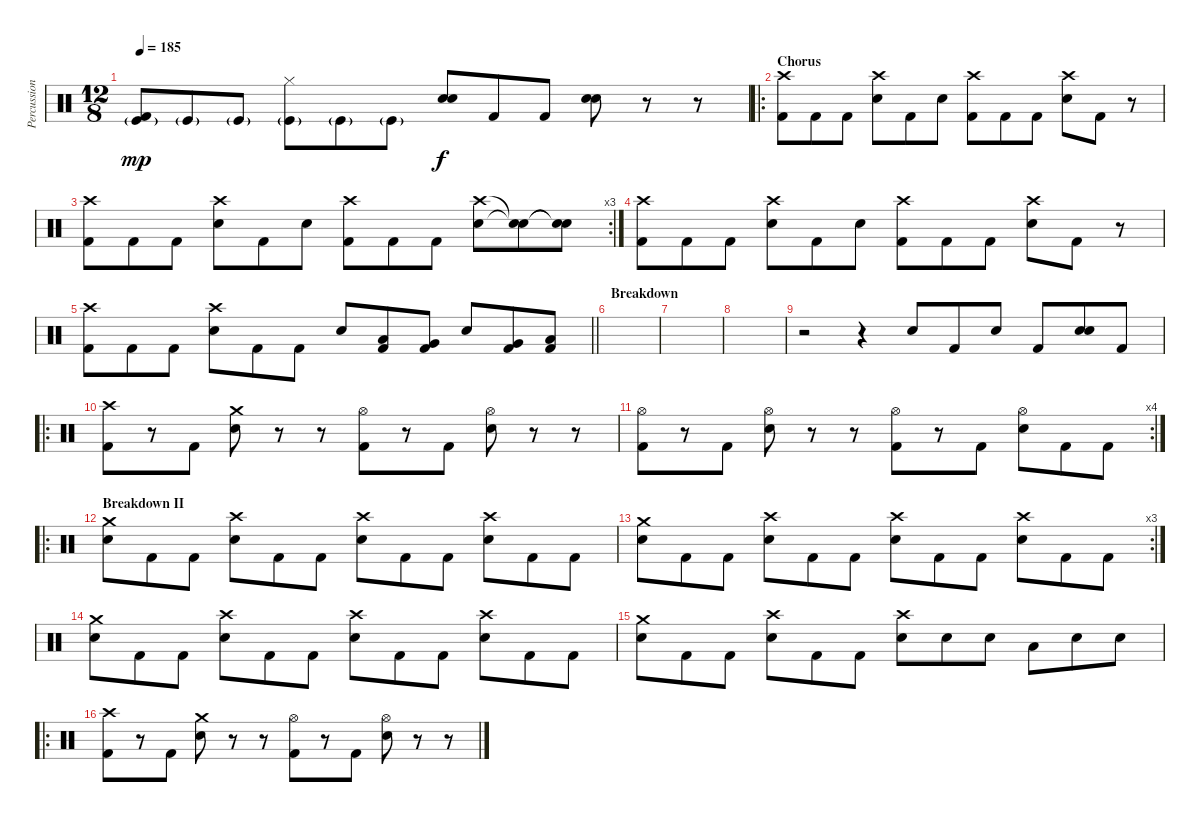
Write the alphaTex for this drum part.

\track ("Percussion" "Percussion") {instrument percussion}
\staff {score}
\articulation defaults
\ts (12 8)
\tempo 185
\clef neutral
\ks c
("Kick (hit)"{g} "Kick (hit) 2").8{dy mp} "Kick (hit)"{g}.8 "Kick (hit)"{g}.8 ("Kick (hit)"{g} "Hi-Hat (closed)").8 "Kick (hit)"{g}.8 "Kick (hit)"{g}.8 ("Electric Snare (hit)" "Electric Snare (hit)").8{dy f} "Kick (hit) 2".8 "Kick (hit) 2".8 ("Electric Snare (hit)" "Electric Snare (hit)").8 r.8 r.8 |
\ro
\section ("" "Chorus")
("Crash high (hit)" "Kick (hit) 2").8 "Kick (hit) 2".8 "Kick (hit) 2".8 ("Crash high (hit)" "Electric Snare (hit)").8 "Kick (hit) 2".8 "Electric Snare (hit)".8 ("Crash high (hit)" "Kick (hit) 2").8 "Kick (hit) 2".8 "Kick (hit) 2".8 ("Crash high (hit)" "Electric Snare (hit)").8 "Kick (hit) 2".8 r.8 |
\rc 3
("Crash high (hit)" "Kick (hit) 2").8 "Kick (hit) 2".8 "Kick (hit) 2".8 ("Crash high (hit)" "Electric Snare (hit)").8 "Kick (hit) 2".8 "Electric Snare (hit)".8 ("Crash high (hit)" "Kick (hit) 2").8 "Kick (hit) 2".8 "Kick (hit) 2".8 ("Crash high (hit)" "Electric Snare (hit)").8 ("Snare (hit)"{t} "Snare (hit)"{t}).8 ("Snare (hit)"{t} "Snare (hit)"{t}).8 |
("Crash high (hit)" "Kick (hit) 2").8 "Kick (hit) 2".8 "Kick (hit) 2".8 ("Crash high (hit)" "Electric Snare (hit)").8 "Kick (hit) 2".8 "Electric Snare (hit)".8 ("Crash high (hit)" "Kick (hit) 2").8 "Kick (hit) 2".8 "Kick (hit) 2".8 ("Crash high (hit)" "Electric Snare (hit)").8 "Kick (hit) 2".8 r.8 |
\barLineRight lightlight
("Crash high (hit)" "Kick (hit) 2").8 "Kick (hit) 2".8 "Kick (hit) 2".8 ("Crash high (hit)" "Electric Snare (hit)").8 "Kick (hit) 2".8 "Kick (hit) 2".8 "Electric Snare (hit)".8 ("Low Tom (hit)" "Kick (hit) 2").8 ("Very Low Tom (hit)" "Kick (hit) 2").8 "Electric Snare (hit)".8 ("Very Low Tom (hit)" "Kick (hit) 2").8 ("Low Floor Tom (hit)" "Kick (hit) 2").8 |
\section ("" "Breakdown")
|
|
|
r.2 r.4 "Electric Snare (hit)".8 "Kick (hit) 2".8 "Electric Snare (hit)".8 "Kick (hit) 2".8 ("Electric Snare (hit)" "Electric Snare (hit)").8 "Kick (hit) 2".8 |
\ro
("Crash high (hit)" "Kick (hit) 2").8 r.8 "Kick (hit) 2".8 ("Crash medium (hit)" "Electric Snare (hit)").8 r.8 r.8 ("Hi-Hat (open)" "Kick (hit) 2").8 r.8 "Kick (hit) 2".8 ("Hi-Hat (open)" "Electric Snare (hit)").8 r.8 r.8 |
\rc 4
("Hi-Hat (open)" "Kick (hit) 2").8 r.8 "Kick (hit) 2".8 ("Hi-Hat (open)" "Electric Snare (hit)").8 r.8 r.8 ("Hi-Hat (open)" "Kick (hit) 2").8 r.8 "Kick (hit) 2".8 ("Hi-Hat (open)" "Electric Snare (hit)").8 "Kick (hit) 2".8 "Kick (hit) 2".8 |
\ro
\section ("" "Breakdown II")
("Crash medium (hit)" "Electric Snare (hit)").8 "Kick (hit) 2".8 "Kick (hit) 2".8 ("Crash high (hit)" "Electric Snare (hit)").8 "Kick (hit) 2".8 "Kick (hit) 2".8 ("Crash high (hit)" "Electric Snare (hit)").8 "Kick (hit) 2".8 "Kick (hit) 2".8 ("Crash high (hit)" "Electric Snare (hit)").8 "Kick (hit) 2".8 "Kick (hit) 2".8 |
\rc 3
("Crash medium (hit)" "Electric Snare (hit)").8 "Kick (hit) 2".8 "Kick (hit) 2".8 ("Crash high (hit)" "Electric Snare (hit)").8 "Kick (hit) 2".8 "Kick (hit) 2".8 ("Crash high (hit)" "Electric Snare (hit)").8 "Kick (hit) 2".8 "Kick (hit) 2".8 ("Crash high (hit)" "Electric Snare (hit)").8 "Kick (hit) 2".8 "Kick (hit) 2".8 |
("Crash medium (hit)" "Electric Snare (hit)").8 "Kick (hit) 2".8 "Kick (hit) 2".8 ("Crash high (hit)" "Electric Snare (hit)").8 "Kick (hit) 2".8 "Kick (hit) 2".8 ("Crash high (hit)" "Electric Snare (hit)").8 "Kick (hit) 2".8 "Kick (hit) 2".8 ("Crash high (hit)" "Electric Snare (hit)").8 "Kick (hit) 2".8 "Kick (hit) 2".8 |
("Crash medium (hit)" "Electric Snare (hit)").8 "Kick (hit) 2".8 "Kick (hit) 2".8 ("Crash high (hit)" "Electric Snare (hit)").8 "Kick (hit) 2".8 "Kick (hit) 2".8 ("Crash high (hit)" "Electric Snare (hit)").8 "Electric Snare (hit)".8 "Electric Snare (hit)".8 "Low Tom (hit)".8 "Electric Snare (hit)".8 "Electric Snare (hit)".8 |
\ro
("Crash high (hit)" "Kick (hit) 2").8 r.8 "Kick (hit) 2".8 ("Crash medium (hit)" "Electric Snare (hit)").8 r.8 r.8 ("Hi-Hat (open)" "Kick (hit) 2").8 r.8 "Kick (hit) 2".8 ("Hi-Hat (open)" "Electric Snare (hit)").8 r.8 r.8
